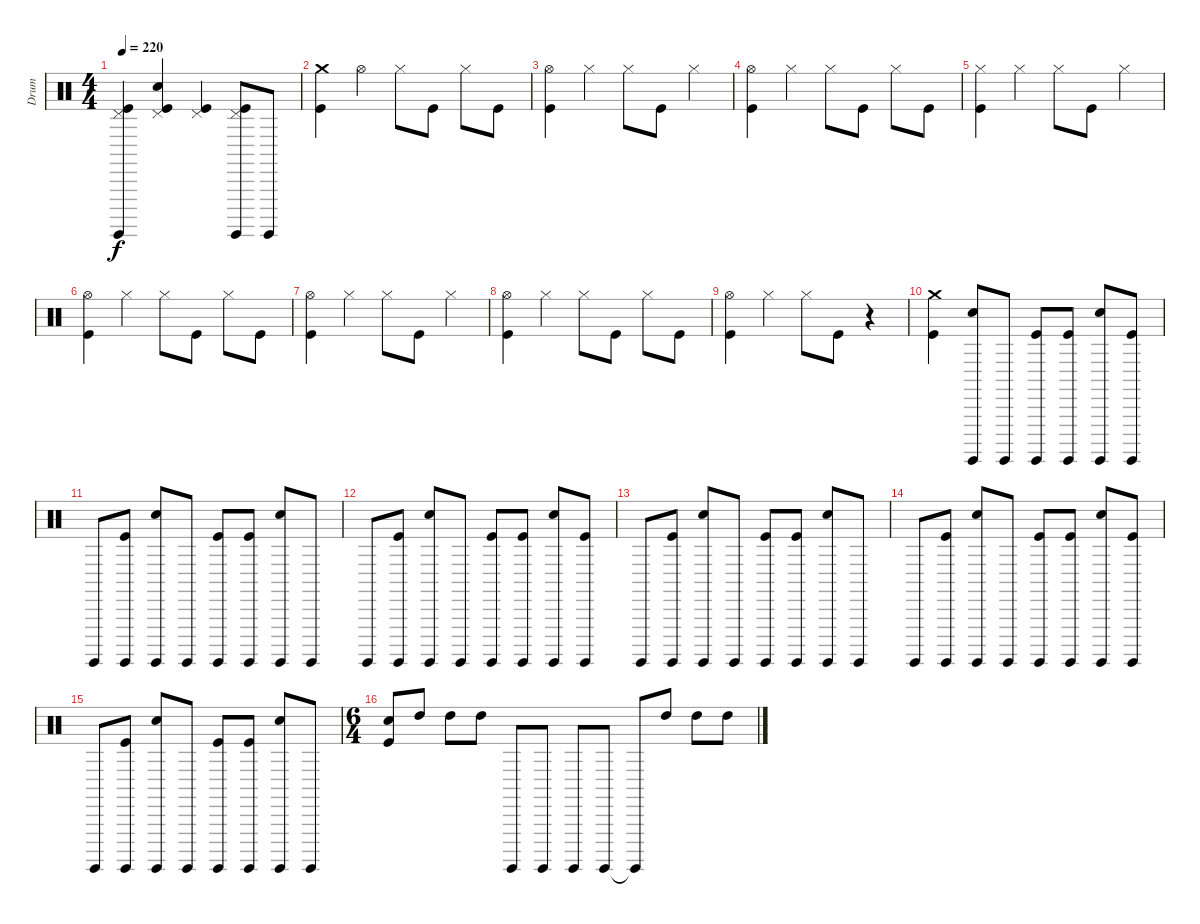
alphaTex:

\track ("Drum" "Drum") {instrument percussion}
\staff {score}
\articulation defaults
\ts (4 4)
\tempo 220
\clef neutral
\ks c
("Pedal Hi-Hat (hit)" "Surdo (hit)" "Kick (hit)").4{dy f} ("Pedal Hi-Hat (hit)" "Snare (hit) 2" "Kick (hit)").4 ("Pedal Hi-Hat (hit)" "Kick (hit)").4 ("Pedal Hi-Hat (hit)" "Surdo (hit)" "Kick (hit)").8 "Surdo (hit)".8 |
("Crash medium (hit)" "Kick (hit)").4 "Hi-Hat (open)".4 "Hi-Hat (closed)".8 "Kick (hit)".8 "Hi-Hat (closed)".8 "Kick (hit)".8 |
("Hi-Hat (open)" "Kick (hit)").4 "Hi-Hat (closed)".4 "Hi-Hat (closed)".8 "Kick (hit)".8 "Hi-Hat (closed)".4 |
("Hi-Hat (open)" "Kick (hit)").4 "Hi-Hat (closed)".4 "Hi-Hat (closed)".8 "Kick (hit)".8 "Hi-Hat (closed)".8 "Kick (hit)".8 |
("Hi-Hat (closed)" "Kick (hit)").4 "Hi-Hat (closed)".4 "Hi-Hat (closed)".8 "Kick (hit)".8 "Hi-Hat (closed)".4 |
("Hi-Hat (open)" "Kick (hit)").4 "Hi-Hat (closed)".4 "Hi-Hat (closed)".8 "Kick (hit)".8 "Hi-Hat (closed)".8 "Kick (hit)".8 |
("Hi-Hat (open)" "Kick (hit)").4 "Hi-Hat (closed)".4 "Hi-Hat (closed)".8 "Kick (hit)".8 "Hi-Hat (closed)".4 |
("Hi-Hat (open)" "Kick (hit)").4 "Hi-Hat (closed)".4 "Hi-Hat (closed)".8 "Kick (hit)".8 "Hi-Hat (closed)".8 "Kick (hit)".8 |
("Hi-Hat (open)" "Kick (hit)").4 "Hi-Hat (closed)".4 "Hi-Hat (closed)".8 "Kick (hit)".8 r.4 |
("Crash medium (hit)" "Kick (hit)").4 ("Snare (hit) 2" "Surdo (hit)").8 "Surdo (hit)".8 ("Surdo (hit)" "Kick (hit)").8 ("Surdo (hit)" "Kick (hit)").8 ("Snare (hit) 2" "Surdo (hit)").8 ("Surdo (hit)" "Kick (hit)").8 |
"Surdo (hit)".8 ("Surdo (hit)" "Kick (hit)").8 ("Snare (hit) 2" "Surdo (hit)").8 "Surdo (hit)".8 ("Surdo (hit)" "Kick (hit)").8 ("Surdo (hit)" "Kick (hit)").8 ("Snare (hit) 2" "Surdo (hit)").8 "Surdo (hit)".8 |
"Surdo (hit)".8 ("Surdo (hit)" "Kick (hit)").8 ("Snare (hit) 2" "Surdo (hit)").8 "Surdo (hit)".8 ("Surdo (hit)" "Kick (hit)").8 ("Surdo (hit)" "Kick (hit)").8 ("Snare (hit) 2" "Surdo (hit)").8 ("Surdo (hit)" "Kick (hit)").8 |
"Surdo (hit)".8 ("Surdo (hit)" "Kick (hit)").8 ("Snare (hit) 2" "Surdo (hit)").8 "Surdo (hit)".8 ("Surdo (hit)" "Kick (hit)").8 ("Surdo (hit)" "Kick (hit)").8 ("Snare (hit) 2" "Surdo (hit)").8 "Surdo (hit)".8 |
"Surdo (hit)".8 ("Surdo (hit)" "Kick (hit)").8 ("Snare (hit) 2" "Surdo (hit)").8 "Surdo (hit)".8 ("Surdo (hit)" "Kick (hit)").8 ("Surdo (hit)" "Kick (hit)").8 ("Snare (hit) 2" "Surdo (hit)").8 ("Surdo (hit)" "Kick (hit)").8 |
"Surdo (hit)".8 ("Surdo (hit)" "Kick (hit)").8 ("Snare (hit) 2" "Surdo (hit)").8 "Surdo (hit)".8 ("Surdo (hit)" "Kick (hit)").8 ("Surdo (hit)" "Kick (hit)").8 ("Snare (hit) 2" "Surdo (hit)").8 "Surdo (hit)".8 |
\ts (6 4)
("Snare (hit) 2" "Kick (hit)").8 "High Tom (hit)".8 "High Tom (hit)".8 "High Tom (hit)".8 "Surdo (hit)".8 "Surdo (hit)".8 "Surdo (hit)".8 "Surdo (hit)".8 "Surdo (hit)"{t}.8 "High Tom (hit)".8 "High Tom (hit)".8 "High Tom (hit)".8
